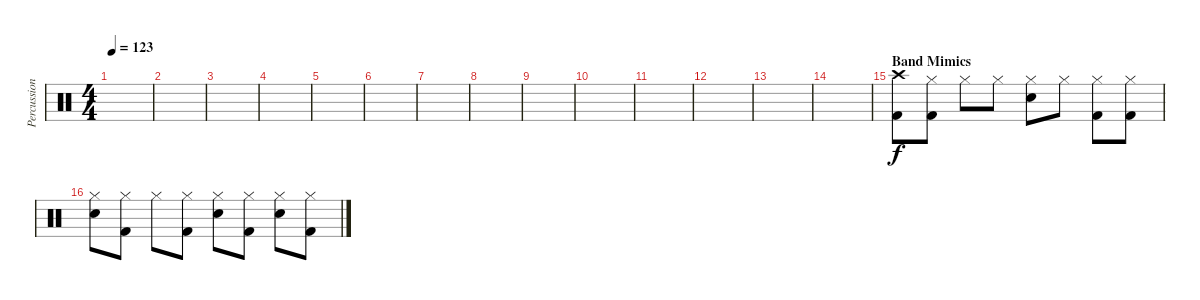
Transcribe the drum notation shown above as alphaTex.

\track ("Percussion" "Percussion") {instrument percussion}
\staff {score}
\articulation defaults
\ts (4 4)
\tempo 123
\clef neutral
\ks c
|
|
|
|
|
|
|
|
|
|
|
|
|
|
\section ("" "Band Mimics")
("Crash high (hit)" "Kick (hit) 2").8 ("Hi-Hat (closed)" "Kick (hit) 2").8 "Hi-Hat (closed)".8 "Hi-Hat (closed)".8 ("Hi-Hat (closed)" "Electric Snare (hit)").8 "Hi-Hat (closed)".8 ("Hi-Hat (closed)" "Kick (hit) 2").8 ("Hi-Hat (closed)" "Kick (hit) 2").8 |
("Hi-Hat (closed)" "Electric Snare (hit)").8 ("Hi-Hat (closed)" "Kick (hit) 2").8 "Hi-Hat (closed)".8 ("Hi-Hat (closed)" "Kick (hit) 2").8 ("Hi-Hat (closed)" "Electric Snare (hit)").8 ("Hi-Hat (closed)" "Kick (hit) 2").8 ("Hi-Hat (closed)" "Electric Snare (hit)").8 ("Hi-Hat (closed)" "Kick (hit) 2").8
